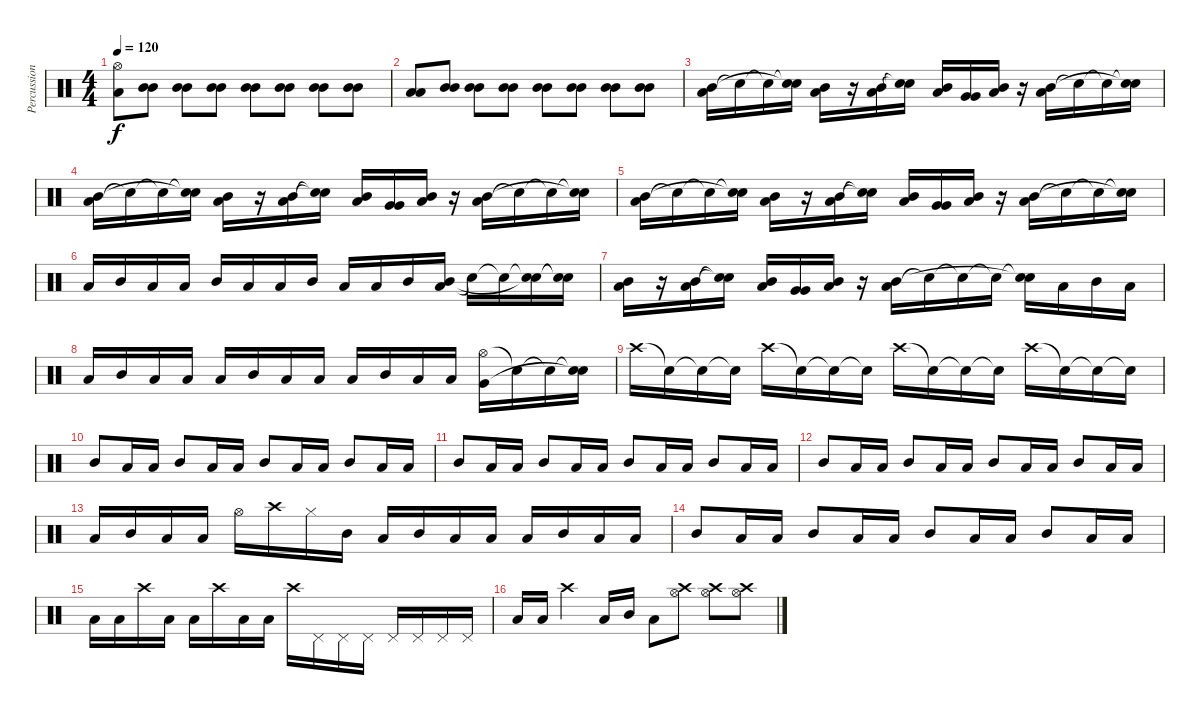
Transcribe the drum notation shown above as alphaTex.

\track ("Percussion" "Percussion") {instrument percussion}
\staff {score}
\articulation defaults
\ts (4 4)
\tempo 120
\clef neutral
\ks c
("Hi-Hat (open)" "Low Tom (hit)").8{dy f} ("Mid Tom (hit)" "Mid Tom (hit)").8 ("Mid Tom (hit)" "Mid Tom (hit)").8 ("Mid Tom (hit)" "Mid Tom (hit)").8 ("Mid Tom (hit)" "Mid Tom (hit)").8 ("Mid Tom (hit)" "Mid Tom (hit)").8 ("Mid Tom (hit)" "Mid Tom (hit)").8 ("Mid Tom (hit)" "Mid Tom (hit)").8 |
("Low Tom (hit)" "Low Tom (hit)").8 ("Mid Tom (hit)" "Mid Tom (hit)").8 ("Mid Tom (hit)" "Mid Tom (hit)").8 ("Mid Tom (hit)" "Mid Tom (hit)").8 ("Mid Tom (hit)" "Mid Tom (hit)").8 ("Mid Tom (hit)" "Mid Tom (hit)").8 ("Mid Tom (hit)" "Mid Tom (hit)").8 ("Mid Tom (hit)" "Mid Tom (hit)").8 |
("Low Tom (hit)" "Mid Tom (hit)").16 "Snare (hit)"{t}.16 "Snare (hit)"{t}.16 ("Snare (hit)"{t} "Snare (hit)"{t}).16 ("Low Tom (hit)" "Mid Tom (hit)").16 r.16 ("Low Tom (hit)" "Mid Tom (hit)").16 ("Snare (hit)"{t} "Snare (hit)"{t}).16 ("Low Tom (hit)" "Mid Tom (hit)").16 ("Very Low Tom (hit)" "Very Low Tom (hit)").16 ("Low Tom (hit)" "Mid Tom (hit)").16 r.16 ("Low Tom (hit)" "Mid Tom (hit)").16 "Snare (hit)"{t}.16 "Snare (hit)"{t}.16 ("Snare (hit)"{t} "Snare (hit)"{t}).16 |
("Low Tom (hit)" "Mid Tom (hit)").16 "Snare (hit)"{t}.16 "Snare (hit)"{t}.16 ("Snare (hit)"{t} "Snare (hit)"{t}).16 ("Low Tom (hit)" "Mid Tom (hit)").16 r.16 ("Low Tom (hit)" "Mid Tom (hit)").16 ("Snare (hit)"{t} "Snare (hit)"{t}).16 ("Low Tom (hit)" "Mid Tom (hit)").16 ("Very Low Tom (hit)" "Very Low Tom (hit)").16 ("Low Tom (hit)" "Mid Tom (hit)").16 r.16 ("Low Tom (hit)" "Mid Tom (hit)").16 "Snare (hit)"{t}.16 "Snare (hit)"{t}.16 ("Snare (hit)"{t} "Snare (hit)"{t}).16 |
("Low Tom (hit)" "Mid Tom (hit)").16 "Snare (hit)"{t}.16 "Snare (hit)"{t}.16 ("Snare (hit)"{t} "Snare (hit)"{t}).16 ("Low Tom (hit)" "Mid Tom (hit)").16 r.16 ("Low Tom (hit)" "Mid Tom (hit)").16 ("Snare (hit)"{t} "Snare (hit)"{t}).16 ("Low Tom (hit)" "Mid Tom (hit)").16 ("Very Low Tom (hit)" "Very Low Tom (hit)").16 ("Low Tom (hit)" "Mid Tom (hit)").16 r.16 ("Low Tom (hit)" "Mid Tom (hit)").16 "Snare (hit)"{t}.16 "Snare (hit)"{t}.16 ("Snare (hit)"{t} "Snare (hit)"{t}).16 |
"Low Tom (hit)".16 "Mid Tom (hit)".16 "Low Tom (hit)".16 "Low Tom (hit)".16 "Mid Tom (hit)".16 "Low Tom (hit)".16 "Low Tom (hit)".16 "Mid Tom (hit)".16 "Low Tom (hit)".16 "Low Tom (hit)".16 "Mid Tom (hit)".16 ("Low Tom (hit)" "Mid Tom (hit)").16 "Snare (hit)"{t}.16 "Snare (hit)"{t}.16 ("Snare (hit)"{t} "Snare (hit)"{t}).16 ("Snare (hit)"{t} "Snare (hit)"{t}).16 |
("Mid Tom (hit)" "Low Tom (hit)").16 r.16 ("Low Tom (hit)" "Mid Tom (hit)").16 ("Snare (hit)"{t} "Snare (hit)"{t}).16 ("Low Tom (hit)" "Mid Tom (hit)").16 ("Very Low Tom (hit)" "Very Low Tom (hit)").16 ("Low Tom (hit)" "Mid Tom (hit)").16 r.16 ("Low Tom (hit)" "Mid Tom (hit)").16 "Snare (hit)"{t}.16 "Snare (hit)"{t}.16 "Snare (hit)"{t}.16 ("Snare (hit)"{t} "Snare (hit)"{t}).16 "Low Tom (hit)".16 "Mid Tom (hit)".16 "Low Tom (hit)".16 |
"Low Tom (hit)".16 "Mid Tom (hit)".16 "Low Tom (hit)".16 "Low Tom (hit)".16 "Low Tom (hit)".16 "Mid Tom (hit)".16 "Low Tom (hit)".16 "Low Tom (hit)".16 "Low Tom (hit)".16 "Mid Tom (hit)".16 "Low Tom (hit)".16 "Low Tom (hit)".16 ("Hi-Hat (open)" "Very Low Tom (hit)").16 "Snare (hit)"{t}.16 "Snare (hit)"{t}.16 ("Snare (hit)"{t} "Snare (hit)"{t}).16 |
"Crash high (hit)".16 "Snare (hit)"{t}.16 "Snare (hit)"{t}.16 "Snare (hit)"{t}.16 "Crash high (hit)".16 "Snare (hit)"{t}.16 "Snare (hit)"{t}.16 "Snare (hit)"{t}.16 "Crash high (hit)".16 "Snare (hit)"{t}.16 "Snare (hit)"{t}.16 "Snare (hit)"{t}.16 "Crash high (hit)".16 "Snare (hit)"{t}.16 "Snare (hit)"{t}.16 "Snare (hit)"{t}.16 |
"Mid Tom (hit)".8 "Low Tom (hit)".16 "Low Tom (hit)".16 "Mid Tom (hit)".8 "Low Tom (hit)".16 "Low Tom (hit)".16 "Mid Tom (hit)".8 "Low Tom (hit)".16 "Low Tom (hit)".16 "Mid Tom (hit)".8 "Low Tom (hit)".16 "Low Tom (hit)".16 |
"Mid Tom (hit)".8 "Low Tom (hit)".16 "Low Tom (hit)".16 "Mid Tom (hit)".8 "Low Tom (hit)".16 "Low Tom (hit)".16 "Mid Tom (hit)".8 "Low Tom (hit)".16 "Low Tom (hit)".16 "Mid Tom (hit)".8 "Low Tom (hit)".16 "Low Tom (hit)".16 |
"Mid Tom (hit)".8 "Low Tom (hit)".16 "Low Tom (hit)".16 "Mid Tom (hit)".8 "Low Tom (hit)".16 "Low Tom (hit)".16 "Mid Tom (hit)".8 "Low Tom (hit)".16 "Low Tom (hit)".16 "Mid Tom (hit)".8 "Low Tom (hit)".16 "Low Tom (hit)".16 |
"Low Tom (hit)".16 "Mid Tom (hit)".16 "Low Tom (hit)".16 "Low Tom (hit)".16 "Hi-Hat (open)".16 "Crash high (hit)".16 "Hi-Hat (closed)".16 "Mid Tom (hit)".16 "Low Tom (hit)".16 "Mid Tom (hit)".16 "Low Tom (hit)".16 "Low Tom (hit)".16 "Low Tom (hit)".16 "Mid Tom (hit)".16 "Low Tom (hit)".16 "Low Tom (hit)".16 |
"Mid Tom (hit)".8 "Low Tom (hit)".16 "Low Tom (hit)".16 "Mid Tom (hit)".8 "Low Tom (hit)".16 "Low Tom (hit)".16 "Mid Tom (hit)".8 "Low Tom (hit)".16 "Low Tom (hit)".16 "Mid Tom (hit)".8 "Low Tom (hit)".16 "Low Tom (hit)".16 |
"Low Tom (hit)".16 "Low Tom (hit)".16 "Crash high (hit)".16 "Low Tom (hit)".16 "Low Tom (hit)".16 "Crash high (hit)".16 "Low Tom (hit)".16 "Low Tom (hit)".16 "Crash high (hit)".16 "Pedal Hi-Hat (hit)".16 "Pedal Hi-Hat (hit)".16 "Pedal Hi-Hat (hit)".16 "Pedal Hi-Hat (hit)".16 "Pedal Hi-Hat (hit)".16 "Pedal Hi-Hat (hit)".16 "Pedal Hi-Hat (hit)".16 |
"Low Tom (hit)".16 "Low Tom (hit)".16 "Crash high (hit)".4 "Low Tom (hit)".16 "Mid Tom (hit)".16 "Low Tom (hit)".8 ("Hi-Hat (open)" "Crash high (hit)").8 ("Hi-Hat (open)" "Crash high (hit)").8 ("Hi-Hat (open)" "Crash high (hit)").8
